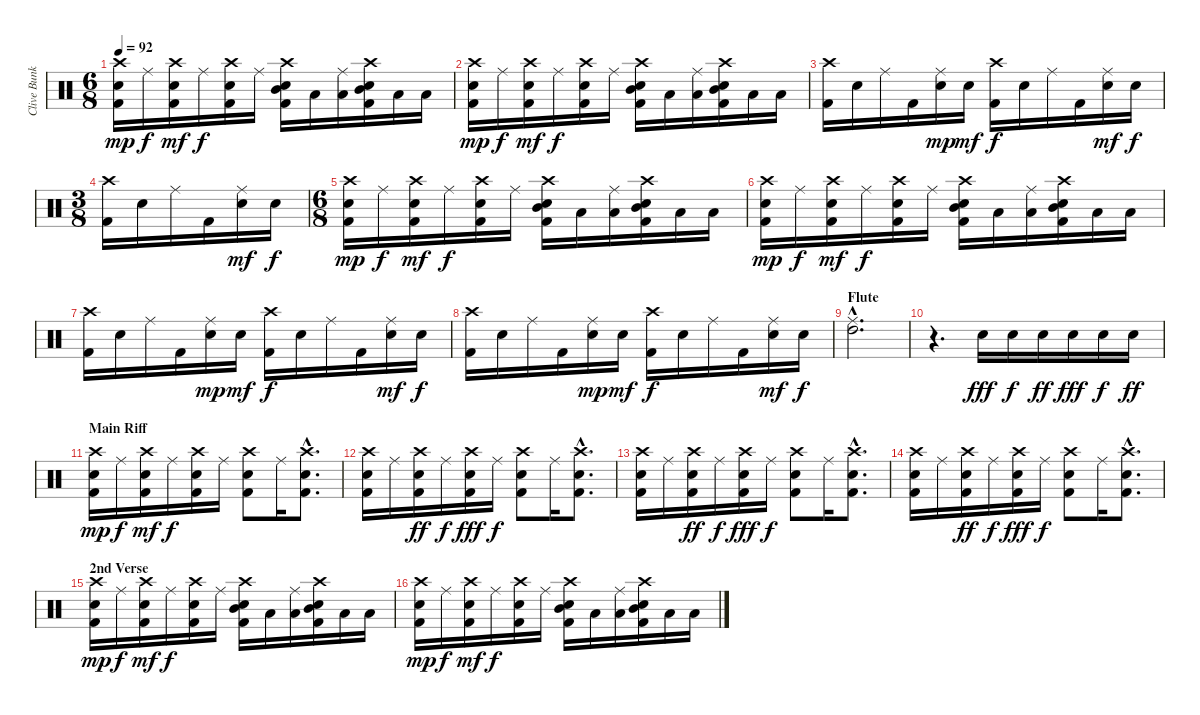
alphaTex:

\track ("Clive Bunker (Drums)" "Clive Bunk") {instrument percussion}
\staff {score}
\articulation defaults
\ts (6 8)
\tempo 92
\clef neutral
\ks c
("Crash high (hit)" "Electric Snare (hit)" "Kick (hit) 2").16{dy mp} "Ride (middle)".16{dy f} ("Crash high (hit)" "Electric Snare (hit)" "Kick (hit) 2").16{dy mf} "Ride (middle)".16{dy f} ("Crash high (hit)" "Electric Snare (hit)" "Kick (hit) 2").16 "Ride (middle)".16 ("Crash high (hit)" "Electric Snare (hit)" "Mid Tom (hit)" "Kick (hit) 2").16 "Low Tom (hit)".16 ("Ride (middle)" "Low Tom (hit)").16 ("Crash high (hit)" "Electric Snare (hit)" "Mid Tom (hit)" "Kick (hit) 2").16 "Low Tom (hit)".16 "Low Tom (hit)".16 |
("Crash high (hit)" "Electric Snare (hit)" "Kick (hit) 2").16{dy mp} "Ride (middle)".16{dy f} ("Crash high (hit)" "Electric Snare (hit)" "Kick (hit) 2").16{dy mf} "Ride (middle)".16{dy f} ("Crash high (hit)" "Electric Snare (hit)" "Kick (hit) 2").16 "Ride (middle)".16 ("Crash high (hit)" "Electric Snare (hit)" "Mid Tom (hit)" "Kick (hit) 2").16 "Low Tom (hit)".16 ("Ride (middle)" "Low Tom (hit)").16 ("Crash high (hit)" "Electric Snare (hit)" "Mid Tom (hit)" "Kick (hit) 2").16 "Low Tom (hit)".16 "Low Tom (hit)".16 |
("Crash high (hit)" "Kick (hit) 2").16 "Electric Snare (hit)".16 "Ride (middle)".16 "Kick (hit) 2".16 ("Ride (middle)" "Electric Snare (hit)").16{dy mp} "Electric Snare (hit)".16{dy mf} ("Crash high (hit)" "Kick (hit) 2").16{dy f} "Electric Snare (hit)".16 "Ride (middle)".16 "Kick (hit) 2".16 ("Ride (middle)" "Electric Snare (hit)").16{dy mf} "Electric Snare (hit)".16{dy f} |
\ts (3 8)
("Crash high (hit)" "Kick (hit) 2").16 "Electric Snare (hit)".16 "Ride (middle)".16 "Kick (hit) 2".16 ("Ride (middle)" "Electric Snare (hit)").16{dy mf} "Electric Snare (hit)".16{dy f} |
\ts (6 8)
("Crash high (hit)" "Electric Snare (hit)" "Kick (hit) 2").16{dy mp} "Ride (middle)".16{dy f} ("Crash high (hit)" "Electric Snare (hit)" "Kick (hit) 2").16{dy mf} "Ride (middle)".16{dy f} ("Crash high (hit)" "Electric Snare (hit)" "Kick (hit) 2").16 "Ride (middle)".16 ("Crash high (hit)" "Electric Snare (hit)" "Mid Tom (hit)" "Kick (hit) 2").16 "Low Tom (hit)".16 ("Ride (middle)" "Low Tom (hit)").16 ("Crash high (hit)" "Electric Snare (hit)" "Mid Tom (hit)" "Kick (hit) 2").16 "Low Tom (hit)".16 "Low Tom (hit)".16 |
("Crash high (hit)" "Electric Snare (hit)" "Kick (hit) 2").16{dy mp} "Ride (middle)".16{dy f} ("Crash high (hit)" "Electric Snare (hit)" "Kick (hit) 2").16{dy mf} "Ride (middle)".16{dy f} ("Crash high (hit)" "Electric Snare (hit)" "Kick (hit) 2").16 "Ride (middle)".16 ("Crash high (hit)" "Electric Snare (hit)" "Mid Tom (hit)" "Kick (hit) 2").16 "Low Tom (hit)".16 ("Ride (middle)" "Low Tom (hit)").16 ("Crash high (hit)" "Electric Snare (hit)" "Mid Tom (hit)" "Kick (hit) 2").16 "Low Tom (hit)".16 "Low Tom (hit)".16 |
("Crash high (hit)" "Kick (hit) 2").16 "Electric Snare (hit)".16 "Ride (middle)".16 "Kick (hit) 2".16 ("Ride (middle)" "Electric Snare (hit)").16{dy mp} "Electric Snare (hit)".16{dy mf} ("Crash high (hit)" "Kick (hit) 2").16{dy f} "Electric Snare (hit)".16 "Ride (middle)".16 "Kick (hit) 2".16 ("Ride (middle)" "Electric Snare (hit)").16{dy mf} "Electric Snare (hit)".16{dy f} |
("Crash high (hit)" "Kick (hit) 2").16 "Electric Snare (hit)".16 "Ride (middle)".16 "Kick (hit) 2".16 ("Ride (middle)" "Electric Snare (hit)").16{dy mp} "Electric Snare (hit)".16{dy mf} ("Crash high (hit)" "Kick (hit) 2").16{dy f} "Electric Snare (hit)".16 "Ride (middle)".16 "Kick (hit) 2".16 ("Ride (middle)" "Electric Snare (hit)").16{dy mf} "Electric Snare (hit)".16{dy f} |
\section ("" "Flute")
("Ride (middle)"{hac} "High Tom (hit)"{hac}).2{d} |
r.4{d} "Electric Snare (hit)".16{dy fff} "Electric Snare (hit)".16{dy f} "Electric Snare (hit)".16{dy ff} "Electric Snare (hit)".16{dy fff} "Electric Snare (hit)".16{dy f} "Electric Snare (hit)".16{dy ff} |
\section ("" "Main Riff")
("Crash high (hit)" "Electric Snare (hit)" "Kick (hit) 2").16{dy mp} "Ride (middle)".16{dy f} ("Crash high (hit)" "Electric Snare (hit)" "Kick (hit) 2").16{dy mf} "Ride (middle)".16{dy f} ("Crash high (hit)" "Electric Snare (hit)" "Kick (hit) 2").16 "Ride (middle)".16 ("Crash high (hit)" "Electric Snare (hit)" "Kick (hit) 2").8 "Ride (middle)".16 ("Crash high (hit)"{hac} "Electric Snare (hit)"{hac} "Kick (hit) 2"{hac}).8{d} |
("Crash high (hit)" "Electric Snare (hit)" "Kick (hit) 2").16 "Ride (middle)".16 ("Crash high (hit)" "Electric Snare (hit)" "Kick (hit) 2").16{dy ff} "Ride (middle)".16{dy f} ("Crash high (hit)" "Electric Snare (hit)" "Kick (hit) 2").16{dy fff} "Ride (middle)".16{dy f} ("Crash high (hit)" "Electric Snare (hit)" "Kick (hit) 2").8 "Ride (middle)".16 ("Crash high (hit)"{hac} "Electric Snare (hit)"{hac} "Kick (hit) 2"{hac}).8{d} |
("Crash high (hit)" "Electric Snare (hit)" "Kick (hit) 2").16 "Ride (middle)".16 ("Crash high (hit)" "Electric Snare (hit)" "Kick (hit) 2").16{dy ff} "Ride (middle)".16{dy f} ("Crash high (hit)" "Electric Snare (hit)" "Kick (hit) 2").16{dy fff} "Ride (middle)".16{dy f} ("Crash high (hit)" "Electric Snare (hit)" "Kick (hit) 2").8 "Ride (middle)".16 ("Crash high (hit)"{hac} "Electric Snare (hit)"{hac} "Kick (hit) 2"{hac}).8{d} |
("Crash high (hit)" "Electric Snare (hit)" "Kick (hit) 2").16 "Ride (middle)".16 ("Crash high (hit)" "Electric Snare (hit)" "Kick (hit) 2").16{dy ff} "Ride (middle)".16{dy f} ("Crash high (hit)" "Electric Snare (hit)" "Kick (hit) 2").16{dy fff} "Ride (middle)".16{dy f} ("Crash high (hit)" "Electric Snare (hit)" "Kick (hit) 2").8 "Ride (middle)".16 ("Crash high (hit)"{hac} "Electric Snare (hit)"{hac} "Kick (hit) 2"{hac}).8{d} |
\section ("" "2nd Verse")
("Crash high (hit)" "Electric Snare (hit)" "Kick (hit) 2").16{dy mp} "Ride (middle)".16{dy f} ("Crash high (hit)" "Electric Snare (hit)" "Kick (hit) 2").16{dy mf} "Ride (middle)".16{dy f} ("Crash high (hit)" "Electric Snare (hit)" "Kick (hit) 2").16 "Ride (middle)".16 ("Crash high (hit)" "Electric Snare (hit)" "Mid Tom (hit)" "Kick (hit) 2").16 "Low Tom (hit)".16 ("Ride (middle)" "Low Tom (hit)").16 ("Crash high (hit)" "Electric Snare (hit)" "Mid Tom (hit)" "Kick (hit) 2").16 "Low Tom (hit)".16 "Low Tom (hit)".16 |
("Crash high (hit)" "Electric Snare (hit)" "Kick (hit) 2").16{dy mp} "Ride (middle)".16{dy f} ("Crash high (hit)" "Electric Snare (hit)" "Kick (hit) 2").16{dy mf} "Ride (middle)".16{dy f} ("Crash high (hit)" "Electric Snare (hit)" "Kick (hit) 2").16 "Ride (middle)".16 ("Crash high (hit)" "Electric Snare (hit)" "Mid Tom (hit)" "Kick (hit) 2").16 "Low Tom (hit)".16 ("Ride (middle)" "Low Tom (hit)").16 ("Crash high (hit)" "Electric Snare (hit)" "Mid Tom (hit)" "Kick (hit) 2").16 "Low Tom (hit)".16 "Low Tom (hit)".16
